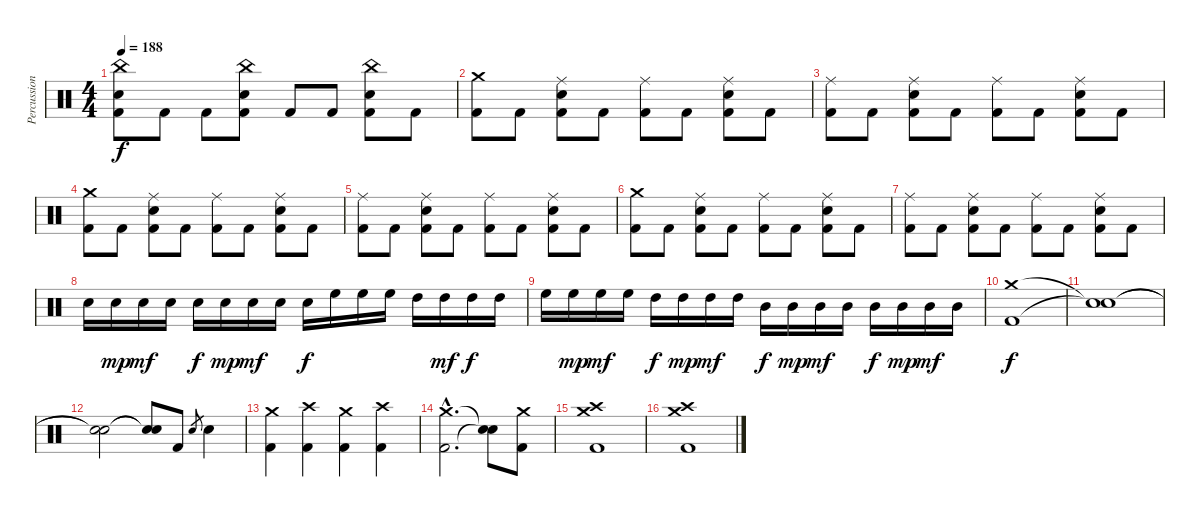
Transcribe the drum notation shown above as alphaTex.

\track ("Percussions" "Percussion") {instrument percussion}
\staff {score}
\articulation defaults
\ts (4 4)
\tempo 188
\clef neutral
\ks c
("China (hit)" "Snare (hit) 2" "Kick (hit) 2").8{dy f} "Kick (hit) 2".8 "Kick (hit) 2".8 ("China (hit)" "Snare (hit) 2" "Kick (hit) 2").8 "Kick (hit) 2".8 "Kick (hit) 2".8 ("China (hit)" "Snare (hit) 2" "Kick (hit) 2").8 "Kick (hit) 2".8 |
("Crash medium (hit)" "Kick (hit) 2").8 "Kick (hit) 2".8 ("Ride (middle)" "Snare (hit) 2" "Kick (hit) 2").8 "Kick (hit) 2".8 ("Ride (middle)" "Kick (hit) 2").8 "Kick (hit) 2".8 ("Ride (middle)" "Snare (hit) 2" "Kick (hit) 2").8 "Kick (hit) 2".8 |
("Ride (middle)" "Kick (hit) 2").8 "Kick (hit) 2".8 ("Ride (middle)" "Snare (hit) 2" "Kick (hit) 2").8 "Kick (hit) 2".8 ("Ride (middle)" "Kick (hit) 2").8 "Kick (hit) 2".8 ("Ride (middle)" "Snare (hit) 2" "Kick (hit) 2").8 "Kick (hit) 2".8 |
("Crash medium (hit)" "Kick (hit) 2").8 "Kick (hit) 2".8 ("Ride (middle)" "Snare (hit) 2" "Kick (hit) 2").8 "Kick (hit) 2".8 ("Ride (middle)" "Kick (hit) 2").8 "Kick (hit) 2".8 ("Ride (middle)" "Snare (hit) 2" "Kick (hit) 2").8 "Kick (hit) 2".8 |
("Ride (middle)" "Kick (hit) 2").8 "Kick (hit) 2".8 ("Ride (middle)" "Snare (hit) 2" "Kick (hit) 2").8 "Kick (hit) 2".8 ("Ride (middle)" "Kick (hit) 2").8 "Kick (hit) 2".8 ("Ride (middle)" "Snare (hit) 2" "Kick (hit) 2").8 "Kick (hit) 2".8 |
("Crash medium (hit)" "Kick (hit) 2").8 "Kick (hit) 2".8 ("Ride (middle)" "Snare (hit) 2" "Kick (hit) 2").8 "Kick (hit) 2".8 ("Ride (middle)" "Kick (hit) 2").8 "Kick (hit) 2".8 ("Ride (middle)" "Snare (hit) 2" "Kick (hit) 2").8 "Kick (hit) 2".8 |
("Ride (middle)" "Kick (hit) 2").8 "Kick (hit) 2".8 ("Ride (middle)" "Snare (hit) 2" "Kick (hit) 2").8 "Kick (hit) 2".8 ("Ride (middle)" "Kick (hit) 2").8 "Kick (hit) 2".8 ("Ride (middle)" "Snare (hit) 2" "Kick (hit) 2").8 "Kick (hit) 2".8 |
"Snare (hit) 2".16 "Snare (hit) 2".16{dy mp} "Snare (hit) 2".16{dy mf} "Snare (hit) 2".16 "Snare (hit) 2".16{dy f} "Snare (hit) 2".16{dy mp} "Snare (hit) 2".16{dy mf} "Snare (hit) 2".16 "Snare (hit) 2".16{dy f} "High Floor Tom (hit)".16 "High Floor Tom (hit)".16 "High Floor Tom (hit)".16 "High Tom (hit)".16 "High Tom (hit)".16{dy mf} "High Tom (hit)".16{dy f} "High Tom (hit)".16 |
"High Floor Tom (hit)".16 "High Floor Tom (hit)".16{dy mp} "High Floor Tom (hit)".16{dy mf} "High Floor Tom (hit)".16 "High Tom (hit)".16{dy f} "High Tom (hit)".16{dy mp} "High Tom (hit)".16{dy mf} "High Tom (hit)".16 "Mid Tom (hit)".16{dy f} "Mid Tom (hit)".16{dy mp} "Mid Tom (hit)".16{dy mf} "Mid Tom (hit)".16 "Mid Tom (hit)".16{dy f} "Mid Tom (hit)".16{dy mp} "Mid Tom (hit)".16{dy mf} "Mid Tom (hit)".16 |
("Crash medium (hit)" "Kick (hit) 2").1{dy f} |
("Snare (hit)"{t} "Snare (hit)"{t}).1 |
("Snare (hit)"{t} "Snare (hit)"{t}).2 ("Snare (hit)"{t} "Snare (hit)"{t}).8 "Kick (hit) 2".8 "Snare (hit) 2".8{gr} "Snare (hit) 2".4 |
("Crash medium (hit)" "Kick (hit) 2").4 ("Crash high (hit)" "Kick (hit) 2").4 ("Crash medium (hit)" "Kick (hit) 2").4 ("Crash high (hit)" "Kick (hit) 2").4 |
("Crash medium (hit)"{hac} "Kick (hit) 2"{hac}).2{d} ("Snare (hit)"{t} "Snare (hit)"{t}).8 ("Crash medium (hit)" "Kick (hit) 2").8 |
("Crash high (hit)" "Crash medium (hit)" "Kick (hit) 2").1 |
("Crash high (hit)" "Crash medium (hit)" "Kick (hit) 2").1
